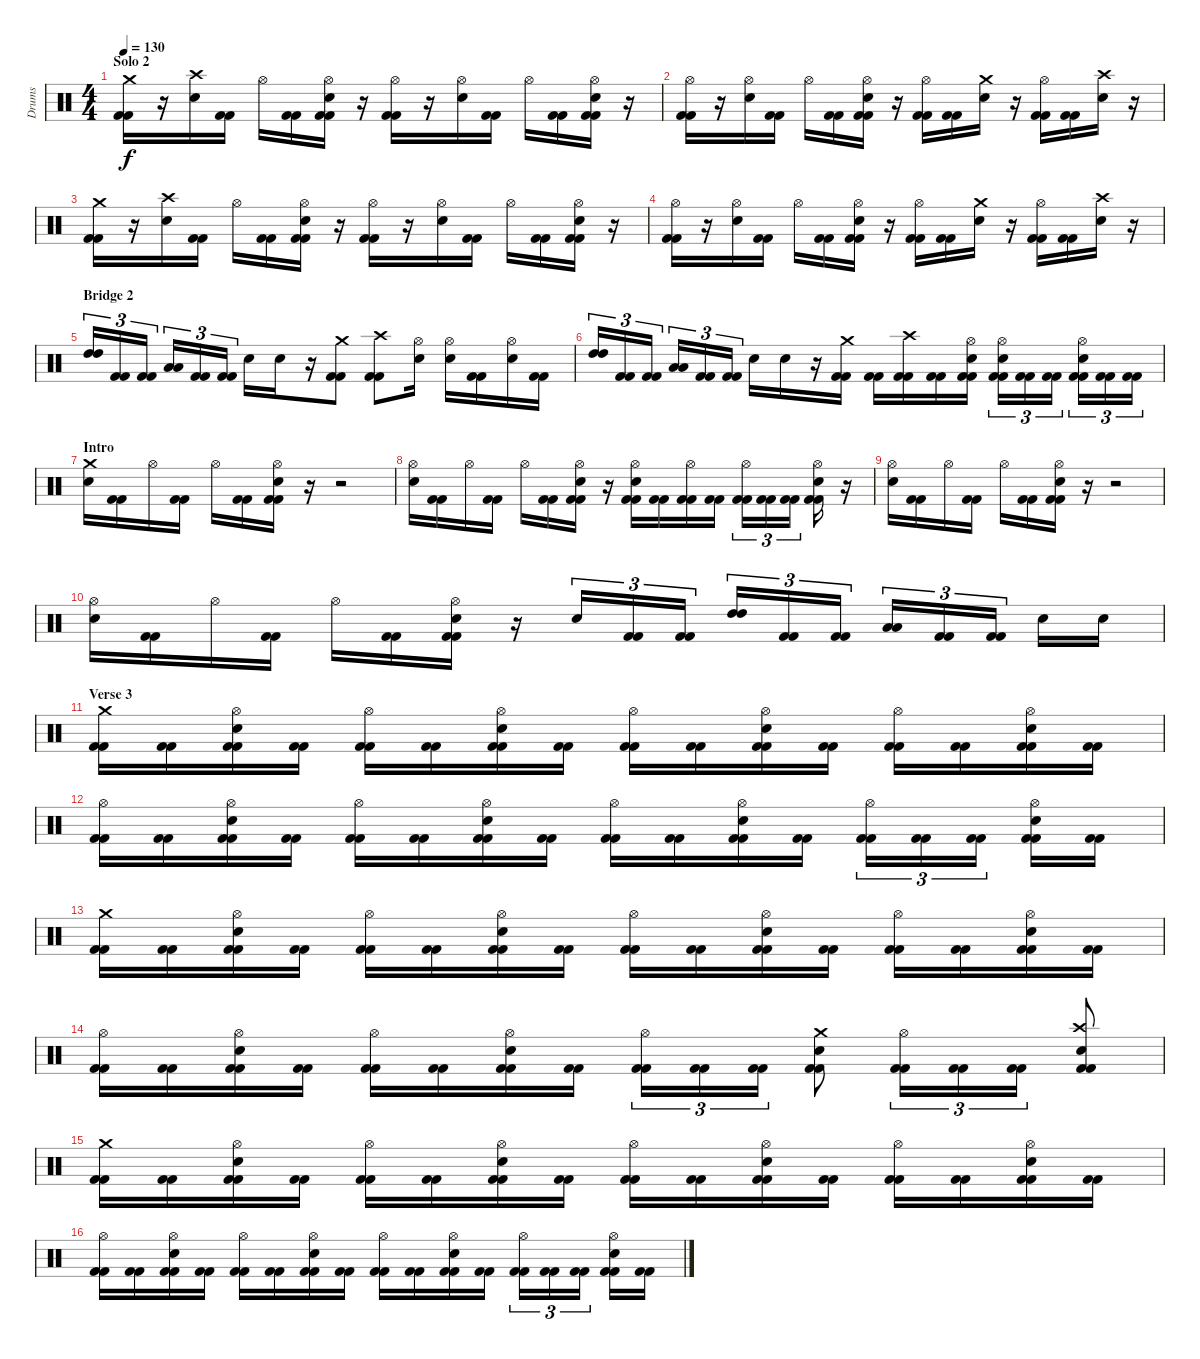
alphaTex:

\track ("Drums" "Drums") {instrument percussion}
\staff {score}
\articulation defaults
\ts (4 4)
\section ("" "Solo 2")
\tempo 130
\clef neutral
\ks c
("Crash medium (hit)" "Kick (hit) 2" "Kick (hit) 2").16{dy f} r.16 ("Crash high (hit)" "Electric Snare (hit)").16 ("Kick (hit) 2" "Kick (hit) 2").16 "Hi-Hat (open)".16 ("Kick (hit) 2" "Kick (hit) 2").16 ("Hi-Hat (open)" "Electric Snare (hit)" "Kick (hit) 2" "Kick (hit) 2").16 r.16 ("Hi-Hat (open)" "Kick (hit) 2" "Kick (hit) 2").16 r.16 ("Hi-Hat (open)" "Electric Snare (hit)").16 ("Kick (hit) 2" "Kick (hit) 2").16 "Hi-Hat (open)".16 ("Kick (hit) 2" "Kick (hit) 2").16 ("Hi-Hat (open)" "Electric Snare (hit)" "Kick (hit) 2" "Kick (hit) 2").16 r.16 |
("Hi-Hat (open)" "Kick (hit) 2" "Kick (hit) 2").16 r.16 ("Hi-Hat (open)" "Electric Snare (hit)").16 ("Kick (hit) 2" "Kick (hit) 2").16 "Hi-Hat (open)".16 ("Kick (hit) 2" "Kick (hit) 2").16 ("Hi-Hat (open)" "Electric Snare (hit)" "Kick (hit) 2" "Kick (hit) 2").16 r.16 ("Hi-Hat (open)" "Kick (hit) 2" "Kick (hit) 2").16 ("Kick (hit) 2" "Kick (hit) 2").16 ("Crash medium (hit)" "Electric Snare (hit)").16 r.16 ("Hi-Hat (open)" "Kick (hit) 2" "Kick (hit) 2").16 ("Kick (hit) 2" "Kick (hit) 2").16 ("Crash high (hit)" "Electric Snare (hit)").16 r.16 |
("Crash medium (hit)" "Kick (hit) 2" "Kick (hit) 2").16 r.16 ("Crash high (hit)" "Electric Snare (hit)").16 ("Kick (hit) 2" "Kick (hit) 2").16 "Hi-Hat (open)".16 ("Kick (hit) 2" "Kick (hit) 2").16 ("Hi-Hat (open)" "Electric Snare (hit)" "Kick (hit) 2" "Kick (hit) 2").16 r.16 ("Hi-Hat (open)" "Kick (hit) 2" "Kick (hit) 2").16 r.16 ("Hi-Hat (open)" "Electric Snare (hit)").16 ("Kick (hit) 2" "Kick (hit) 2").16 "Hi-Hat (open)".16 ("Kick (hit) 2" "Kick (hit) 2").16 ("Hi-Hat (open)" "Electric Snare (hit)" "Kick (hit) 2" "Kick (hit) 2").16 r.16 |
("Hi-Hat (open)" "Kick (hit) 2" "Kick (hit) 2").16 r.16 ("Hi-Hat (open)" "Electric Snare (hit)").16 ("Kick (hit) 2" "Kick (hit) 2").16 "Hi-Hat (open)".16 ("Kick (hit) 2" "Kick (hit) 2").16 ("Hi-Hat (open)" "Electric Snare (hit)" "Kick (hit) 2" "Kick (hit) 2").16 r.16 ("Hi-Hat (open)" "Kick (hit) 2" "Kick (hit) 2").16 ("Kick (hit) 2" "Kick (hit) 2").16 ("Crash medium (hit)" "Electric Snare (hit)").16 r.16 ("Hi-Hat (open)" "Kick (hit) 2" "Kick (hit) 2").16 ("Kick (hit) 2" "Kick (hit) 2").16 ("Crash high (hit)" "Electric Snare (hit)").16 r.16 |
\section ("" "Bridge 2")
("High Tom (hit)" "High Tom (hit)").16{tu (3 2)} ("Kick (hit) 2" "Kick (hit) 2").16{tu (3 2)} ("Kick (hit) 2" "Kick (hit) 2").16{tu (3 2)} ("Low Tom (hit)" "Low Tom (hit)").16{tu (3 2)} ("Kick (hit) 2" "Kick (hit) 2").16{tu (3 2)} ("Kick (hit) 2" "Kick (hit) 2").16{tu (3 2)} "Electric Snare (hit)".16 "Electric Snare (hit)".16 r.16 ("Crash medium (hit)" "Kick (hit) 2" "Kick (hit) 2").8 ("Crash high (hit)" "Kick (hit) 2" "Kick (hit) 2").8 ("Hi-Hat (open)" "Electric Snare (hit)").16 ("Hi-Hat (open)" "Electric Snare (hit)").16 ("Kick (hit) 2" "Kick (hit) 2").16 ("Hi-Hat (open)" "Electric Snare (hit)").16 ("Kick (hit) 2" "Kick (hit) 2").16 |
("High Tom (hit)" "High Tom (hit)").16{tu (3 2)} ("Kick (hit) 2" "Kick (hit) 2").16{tu (3 2)} ("Kick (hit) 2" "Kick (hit) 2").16{tu (3 2)} ("Low Tom (hit)" "Low Tom (hit)").16{tu (3 2)} ("Kick (hit) 2" "Kick (hit) 2").16{tu (3 2)} ("Kick (hit) 2" "Kick (hit) 2").16{tu (3 2)} "Electric Snare (hit)".16 "Electric Snare (hit)".16 r.16 ("Crash medium (hit)" "Kick (hit) 2" "Kick (hit) 2").16 ("Kick (hit) 2" "Kick (hit) 2").16 ("Crash high (hit)" "Kick (hit) 2" "Kick (hit) 2").16 ("Kick (hit) 2" "Kick (hit) 2").16 ("Hi-Hat (open)" "Electric Snare (hit)" "Kick (hit) 2" "Kick (hit) 2").16 ("Hi-Hat (open)" "Electric Snare (hit)" "Kick (hit) 2" "Kick (hit) 2").16{tu (3 2)} ("Kick (hit) 2" "Kick (hit) 2").16{tu (3 2)} ("Kick (hit) 2" "Kick (hit) 2").16{tu (3 2)} ("Hi-Hat (open)" "Electric Snare (hit)" "Kick (hit) 2" "Kick (hit) 2").16{tu (3 2)} ("Kick (hit) 2" "Kick (hit) 2").16{tu (3 2)} ("Kick (hit) 2" "Kick (hit) 2").16{tu (3 2)} |
\section ("" "Intro")
("Crash medium (hit)" "Electric Snare (hit)").16 ("Kick (hit) 2" "Kick (hit) 2").16 "Hi-Hat (open)".16 ("Kick (hit) 2" "Kick (hit) 2").16 "Hi-Hat (open)".16 ("Kick (hit) 2" "Kick (hit) 2").16 ("Hi-Hat (open)" "Electric Snare (hit)" "Kick (hit) 2" "Kick (hit) 2").16 r.16 r.2 |
("Hi-Hat (open)" "Electric Snare (hit)").16 ("Kick (hit) 2" "Kick (hit) 2").16 "Hi-Hat (open)".16 ("Kick (hit) 2" "Kick (hit) 2").16 "Hi-Hat (open)".16 ("Kick (hit) 2" "Kick (hit) 2").16 ("Hi-Hat (open)" "Electric Snare (hit)" "Kick (hit) 2" "Kick (hit) 2").16 r.16 ("Hi-Hat (open)" "Electric Snare (hit)" "Kick (hit) 2" "Kick (hit) 2").16 ("Kick (hit) 2" "Kick (hit) 2").16 ("Hi-Hat (open)" "Kick (hit) 2" "Kick (hit) 2").16 ("Kick (hit) 2" "Kick (hit) 2").16 ("Hi-Hat (open)" "Kick (hit) 2" "Kick (hit) 2").16{tu (3 2)} ("Kick (hit) 2" "Kick (hit) 2").16{tu (3 2)} ("Kick (hit) 2" "Kick (hit) 2").16{tu (3 2)} ("Hi-Hat (open)" "Electric Snare (hit)" "Kick (hit) 2" "Kick (hit) 2").16 r.16 |
("Hi-Hat (open)" "Electric Snare (hit)").16 ("Kick (hit) 2" "Kick (hit) 2").16 "Hi-Hat (open)".16 ("Kick (hit) 2" "Kick (hit) 2").16 "Hi-Hat (open)".16 ("Kick (hit) 2" "Kick (hit) 2").16 ("Hi-Hat (open)" "Electric Snare (hit)" "Kick (hit) 2" "Kick (hit) 2").16 r.16 r.2 |
("Hi-Hat (open)" "Electric Snare (hit)").16 ("Kick (hit) 2" "Kick (hit) 2").16 "Hi-Hat (open)".16 ("Kick (hit) 2" "Kick (hit) 2").16 "Hi-Hat (open)".16 ("Kick (hit) 2" "Kick (hit) 2").16 ("Hi-Hat (open)" "Electric Snare (hit)" "Kick (hit) 2" "Kick (hit) 2").16 r.16 "Electric Snare (hit)".16{tu (3 2)} ("Kick (hit) 2" "Kick (hit) 2").16{tu (3 2)} ("Kick (hit) 2" "Kick (hit) 2").16{tu (3 2)} ("High Tom (hit)" "High Tom (hit)").16{tu (3 2)} ("Kick (hit) 2" "Kick (hit) 2").16{tu (3 2)} ("Kick (hit) 2" "Kick (hit) 2").16{tu (3 2)} ("Low Tom (hit)" "Low Tom (hit)").16{tu (3 2)} ("Kick (hit) 2" "Kick (hit) 2").16{tu (3 2)} ("Kick (hit) 2" "Kick (hit) 2").16{tu (3 2)} "Electric Snare (hit)".16 "Electric Snare (hit)".16 |
\section ("" "Verse 3")
("Crash medium (hit)" "Kick (hit) 2" "Kick (hit) 2").16 ("Kick (hit) 2" "Kick (hit) 2").16 ("Hi-Hat (open)" "Electric Snare (hit)" "Kick (hit) 2" "Kick (hit) 2").16 ("Kick (hit) 2" "Kick (hit) 2").16 ("Hi-Hat (open)" "Kick (hit) 2" "Kick (hit) 2").16 ("Kick (hit) 2" "Kick (hit) 2").16 ("Hi-Hat (open)" "Electric Snare (hit)" "Kick (hit) 2" "Kick (hit) 2").16 ("Kick (hit) 2" "Kick (hit) 2").16 ("Hi-Hat (open)" "Kick (hit) 2" "Kick (hit) 2").16 ("Kick (hit) 2" "Kick (hit) 2").16 ("Hi-Hat (open)" "Electric Snare (hit)" "Kick (hit) 2" "Kick (hit) 2").16 ("Kick (hit) 2" "Kick (hit) 2").16 ("Hi-Hat (open)" "Kick (hit) 2" "Kick (hit) 2").16 ("Kick (hit) 2" "Kick (hit) 2").16 ("Hi-Hat (open)" "Electric Snare (hit)" "Kick (hit) 2" "Kick (hit) 2").16 ("Kick (hit) 2" "Kick (hit) 2").16 |
("Hi-Hat (open)" "Kick (hit) 2" "Kick (hit) 2").16 ("Kick (hit) 2" "Kick (hit) 2").16 ("Hi-Hat (open)" "Electric Snare (hit)" "Kick (hit) 2" "Kick (hit) 2").16 ("Kick (hit) 2" "Kick (hit) 2").16 ("Hi-Hat (open)" "Kick (hit) 2" "Kick (hit) 2").16 ("Kick (hit) 2" "Kick (hit) 2").16 ("Hi-Hat (open)" "Electric Snare (hit)" "Kick (hit) 2" "Kick (hit) 2").16 ("Kick (hit) 2" "Kick (hit) 2").16 ("Hi-Hat (open)" "Kick (hit) 2" "Kick (hit) 2").16 ("Kick (hit) 2" "Kick (hit) 2").16 ("Hi-Hat (open)" "Electric Snare (hit)" "Kick (hit) 2" "Kick (hit) 2").16 ("Kick (hit) 2" "Kick (hit) 2").16 ("Hi-Hat (open)" "Kick (hit) 2" "Kick (hit) 2").16{tu (3 2)} ("Kick (hit) 2" "Kick (hit) 2").16{tu (3 2)} ("Kick (hit) 2" "Kick (hit) 2").16{tu (3 2)} ("Hi-Hat (open)" "Electric Snare (hit)" "Kick (hit) 2" "Kick (hit) 2").16 ("Kick (hit) 2" "Kick (hit) 2").16 |
("Crash medium (hit)" "Kick (hit) 2" "Kick (hit) 2").16 ("Kick (hit) 2" "Kick (hit) 2").16 ("Hi-Hat (open)" "Electric Snare (hit)" "Kick (hit) 2" "Kick (hit) 2").16 ("Kick (hit) 2" "Kick (hit) 2").16 ("Hi-Hat (open)" "Kick (hit) 2" "Kick (hit) 2").16 ("Kick (hit) 2" "Kick (hit) 2").16 ("Hi-Hat (open)" "Electric Snare (hit)" "Kick (hit) 2" "Kick (hit) 2").16 ("Kick (hit) 2" "Kick (hit) 2").16 ("Hi-Hat (open)" "Kick (hit) 2" "Kick (hit) 2").16 ("Kick (hit) 2" "Kick (hit) 2").16 ("Hi-Hat (open)" "Electric Snare (hit)" "Kick (hit) 2" "Kick (hit) 2").16 ("Kick (hit) 2" "Kick (hit) 2").16 ("Hi-Hat (open)" "Kick (hit) 2" "Kick (hit) 2").16 ("Kick (hit) 2" "Kick (hit) 2").16 ("Hi-Hat (open)" "Electric Snare (hit)" "Kick (hit) 2" "Kick (hit) 2").16 ("Kick (hit) 2" "Kick (hit) 2").16 |
("Hi-Hat (open)" "Kick (hit) 2" "Kick (hit) 2").16 ("Kick (hit) 2" "Kick (hit) 2").16 ("Hi-Hat (open)" "Electric Snare (hit)" "Kick (hit) 2" "Kick (hit) 2").16 ("Kick (hit) 2" "Kick (hit) 2").16 ("Hi-Hat (open)" "Kick (hit) 2" "Kick (hit) 2").16 ("Kick (hit) 2" "Kick (hit) 2").16 ("Hi-Hat (open)" "Electric Snare (hit)" "Kick (hit) 2" "Kick (hit) 2").16 ("Kick (hit) 2" "Kick (hit) 2").16 ("Hi-Hat (open)" "Kick (hit) 2" "Kick (hit) 2").16{tu (3 2)} ("Kick (hit) 2" "Kick (hit) 2").16{tu (3 2)} ("Kick (hit) 2" "Kick (hit) 2").16{tu (3 2)} ("Crash medium (hit)" "Electric Snare (hit)" "Kick (hit) 2" "Kick (hit) 2").8 ("Hi-Hat (open)" "Kick (hit) 2" "Kick (hit) 2").16{tu (3 2)} ("Kick (hit) 2" "Kick (hit) 2").16{tu (3 2)} ("Kick (hit) 2" "Kick (hit) 2").16{tu (3 2)} ("Crash high (hit)" "Electric Snare (hit)" "Kick (hit) 2" "Kick (hit) 2").8 |
("Crash medium (hit)" "Kick (hit) 2" "Kick (hit) 2").16 ("Kick (hit) 2" "Kick (hit) 2").16 ("Hi-Hat (open)" "Electric Snare (hit)" "Kick (hit) 2" "Kick (hit) 2").16 ("Kick (hit) 2" "Kick (hit) 2").16 ("Hi-Hat (open)" "Kick (hit) 2" "Kick (hit) 2").16 ("Kick (hit) 2" "Kick (hit) 2").16 ("Hi-Hat (open)" "Electric Snare (hit)" "Kick (hit) 2" "Kick (hit) 2").16 ("Kick (hit) 2" "Kick (hit) 2").16 ("Hi-Hat (open)" "Kick (hit) 2" "Kick (hit) 2").16 ("Kick (hit) 2" "Kick (hit) 2").16 ("Hi-Hat (open)" "Electric Snare (hit)" "Kick (hit) 2" "Kick (hit) 2").16 ("Kick (hit) 2" "Kick (hit) 2").16 ("Hi-Hat (open)" "Kick (hit) 2" "Kick (hit) 2").16 ("Kick (hit) 2" "Kick (hit) 2").16 ("Hi-Hat (open)" "Electric Snare (hit)" "Kick (hit) 2" "Kick (hit) 2").16 ("Kick (hit) 2" "Kick (hit) 2").16 |
("Hi-Hat (open)" "Kick (hit) 2" "Kick (hit) 2").16 ("Kick (hit) 2" "Kick (hit) 2").16 ("Hi-Hat (open)" "Electric Snare (hit)" "Kick (hit) 2" "Kick (hit) 2").16 ("Kick (hit) 2" "Kick (hit) 2").16 ("Hi-Hat (open)" "Kick (hit) 2" "Kick (hit) 2").16 ("Kick (hit) 2" "Kick (hit) 2").16 ("Hi-Hat (open)" "Electric Snare (hit)" "Kick (hit) 2" "Kick (hit) 2").16 ("Kick (hit) 2" "Kick (hit) 2").16 ("Hi-Hat (open)" "Kick (hit) 2" "Kick (hit) 2").16 ("Kick (hit) 2" "Kick (hit) 2").16 ("Hi-Hat (open)" "Electric Snare (hit)" "Kick (hit) 2" "Kick (hit) 2").16 ("Kick (hit) 2" "Kick (hit) 2").16 ("Hi-Hat (open)" "Kick (hit) 2" "Kick (hit) 2").16{tu (3 2)} ("Kick (hit) 2" "Kick (hit) 2").16{tu (3 2)} ("Kick (hit) 2" "Kick (hit) 2").16{tu (3 2)} ("Hi-Hat (open)" "Electric Snare (hit)" "Kick (hit) 2" "Kick (hit) 2").16 ("Kick (hit) 2" "Kick (hit) 2").16
